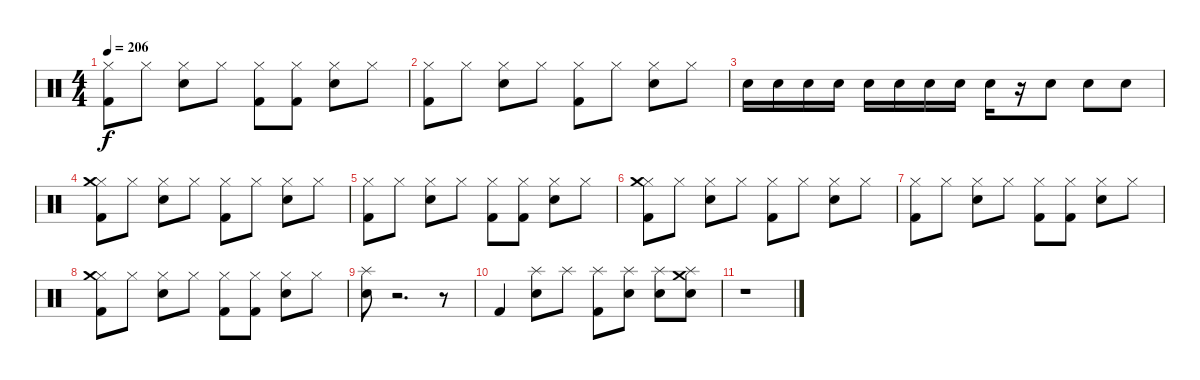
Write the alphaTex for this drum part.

\track "" {instrument percussion}
\staff {score}
\articulation defaults
\ts (4 4)
\tempo 206
\clef neutral
\ks c
("Hi-Hat (closed)" "Kick (hit) 2").8{dy f} "Hi-Hat (closed)".8 ("Hi-Hat (closed)" "Electric Snare (hit)").8 "Hi-Hat (closed)".8 ("Hi-Hat (closed)" "Kick (hit) 2").8 ("Hi-Hat (closed)" "Kick (hit) 2").8 ("Hi-Hat (closed)" "Electric Snare (hit)").8 "Hi-Hat (closed)".8 |
("Hi-Hat (closed)" "Kick (hit) 2").8 "Hi-Hat (closed)".8 ("Hi-Hat (closed)" "Electric Snare (hit)").8 "Hi-Hat (closed)".8 ("Hi-Hat (closed)" "Kick (hit) 2").8 "Hi-Hat (closed)".8 ("Hi-Hat (closed)" "Electric Snare (hit)").8 "Hi-Hat (closed)".8 |
"Electric Snare (hit)".16 "Electric Snare (hit)".16 "Electric Snare (hit)".16 "Electric Snare (hit)".16 "Electric Snare (hit)".16 "Electric Snare (hit)".16 "Electric Snare (hit)".16 "Electric Snare (hit)".16 "Electric Snare (hit)".16 r.16 "Electric Snare (hit)".8 "Electric Snare (hit)".8 "Electric Snare (hit)".8 |
("Hi-Hat (closed)" "Crash medium (hit)" "Kick (hit) 2").8 "Hi-Hat (closed)".8 ("Hi-Hat (closed)" "Electric Snare (hit)").8 "Hi-Hat (closed)".8 ("Hi-Hat (closed)" "Kick (hit) 2").8 "Hi-Hat (closed)".8 ("Hi-Hat (closed)" "Electric Snare (hit)").8 "Hi-Hat (closed)".8 |
("Hi-Hat (closed)" "Kick (hit) 2").8 "Hi-Hat (closed)".8 ("Hi-Hat (closed)" "Electric Snare (hit)").8 "Hi-Hat (closed)".8 ("Hi-Hat (closed)" "Kick (hit) 2").8 ("Hi-Hat (closed)" "Kick (hit) 2").8 ("Hi-Hat (closed)" "Electric Snare (hit)").8 "Hi-Hat (closed)".8 |
("Hi-Hat (closed)" "Crash medium (hit)" "Kick (hit) 2").8 "Hi-Hat (closed)".8 ("Hi-Hat (closed)" "Electric Snare (hit)").8 "Hi-Hat (closed)".8 ("Hi-Hat (closed)" "Kick (hit) 2").8 "Hi-Hat (closed)".8 ("Hi-Hat (closed)" "Electric Snare (hit)").8 "Hi-Hat (closed)".8 |
("Hi-Hat (closed)" "Kick (hit) 2").8 "Hi-Hat (closed)".8 ("Hi-Hat (closed)" "Electric Snare (hit)").8 "Hi-Hat (closed)".8 ("Hi-Hat (closed)" "Kick (hit) 2").8 ("Hi-Hat (closed)" "Kick (hit) 2").8 ("Hi-Hat (closed)" "Electric Snare (hit)").8 "Hi-Hat (closed)".8 |
("Hi-Hat (closed)" "Crash medium (hit)" "Kick (hit) 2").8 "Hi-Hat (closed)".8 ("Hi-Hat (closed)" "Electric Snare (hit)").8 "Hi-Hat (closed)".8 ("Hi-Hat (closed)" "Kick (hit) 2").8 ("Kick (hit) 2" "Hi-Hat (closed)").8 ("Hi-Hat (closed)" "Electric Snare (hit)").8 "Hi-Hat (closed)".8 |
("Electric Snare (hit)" "Splash (hit)").8 r.2{d} r.8 |
"Kick (hit) 2".4 ("Splash (hit)" "Electric Snare (hit)").8 "Splash (hit)".8 ("Splash (hit)" "Kick (hit) 2").8 ("Splash (hit)" "Electric Snare (hit)").8 ("Splash (hit)" "Electric Snare (hit)").8 ("Crash medium (hit)" "Splash (hit)" "Electric Snare (hit)").8 |
r.1
